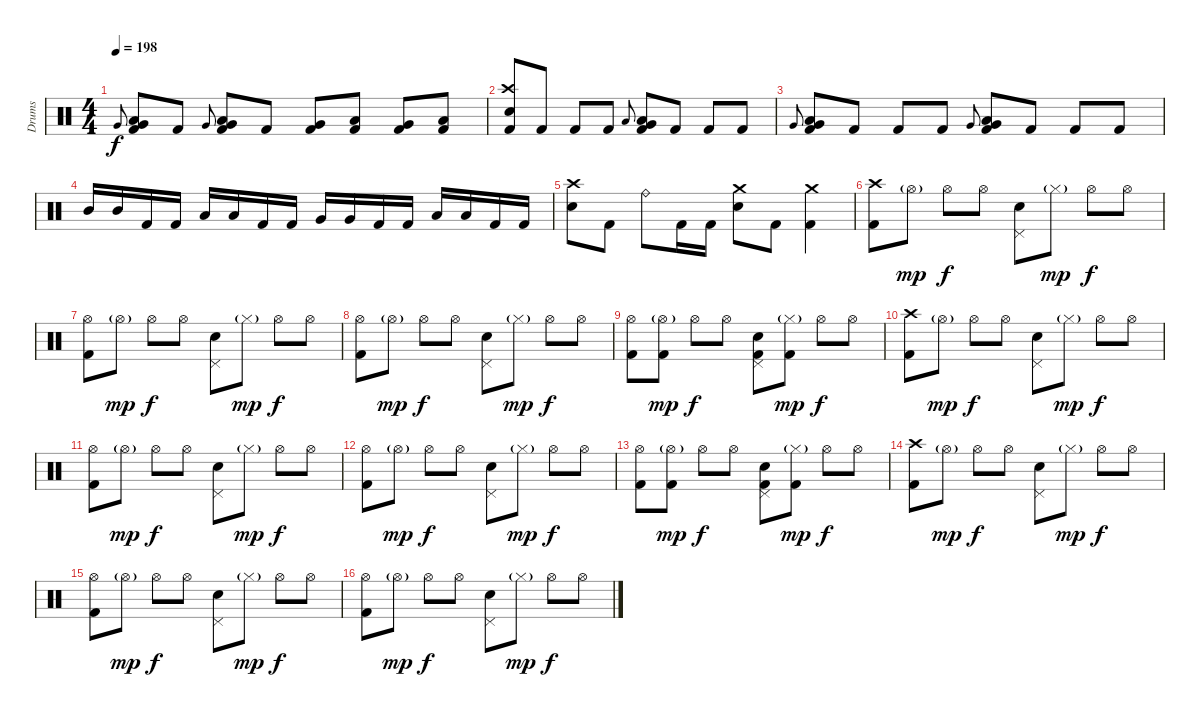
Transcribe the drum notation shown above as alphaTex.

\track ("Drums" "Drums") {instrument percussion}
\staff {score}
\articulation defaults
\ts (4 4)
\tempo 198
\clef neutral
\ks c "Very Low Tom (hit)".8{gr onbeat dy f}
("Very Low Tom (hit)" "Low Floor Tom (hit)" "Kick (hit) 2").8 "Kick (hit) 2".8 "Very Low Tom (hit)".8{gr onbeat} ("Very Low Tom (hit)" "Low Floor Tom (hit)" "Kick (hit) 2").8 "Kick (hit) 2".8 ("Very Low Tom (hit)" "Kick (hit) 2").8 ("Low Tom (hit)" "Kick (hit) 2").8 ("Very Low Tom (hit)" "Kick (hit) 2").8 ("Low Floor Tom (hit)" "Kick (hit) 2").8 |
("Crash high (hit)" "Electric Snare (hit)" "Kick (hit) 2").8 "Kick (hit) 2".8 "Kick (hit) 2".8 "Kick (hit) 2".8 "Low Tom (hit)".8{gr onbeat} ("Low Tom (hit)" "Very Low Tom (hit)" "Kick (hit) 2").8 "Kick (hit) 2".8 "Kick (hit) 2".8 "Kick (hit) 2".8 |
"Very Low Tom (hit)".8{gr onbeat} ("Very Low Tom (hit)" "Low Floor Tom (hit)" "Kick (hit) 2").8 "Kick (hit) 2".8 "Kick (hit) 2".8 "Kick (hit) 2".8 "Very Low Tom (hit)".8{gr onbeat} ("Very Low Tom (hit)" "Low Floor Tom (hit)" "Kick (hit) 2").8 "Kick (hit) 2".8 "Kick (hit) 2".8 "Kick (hit) 2".8 |
"Mid Tom (hit)".16 "Mid Tom (hit)".16 "Kick (hit) 2".16 "Kick (hit) 2".16 "Low Tom (hit)".16 "Low Tom (hit)".16 "Kick (hit) 2".16 "Kick (hit) 2".16 "Very Low Tom (hit)".16 "Very Low Tom (hit)".16 "Kick (hit) 2".16 "Kick (hit) 2".16 "Low Tom (hit)".16 "Low Tom (hit)".16 "Kick (hit) 2".16 "Kick (hit) 2".16 |
("Crash high (hit)" "Electric Snare (hit)").8 "Kick (hit) 2".8 "Ride (bell)".8 "Kick (hit) 2".16 "Kick (hit) 2".16 ("Crash medium (hit)" "Electric Snare (hit)").8 "Kick (hit) 2".8 ("Crash medium (hit)" "Kick (hit) 2").4 |
("Crash high (hit)" "Kick (hit) 2").8 "Hi-Hat (open)"{g}.8{dy mp} "Hi-Hat (open)".8{dy f} "Hi-Hat (open)".8 ("Pedal Hi-Hat (hit)" "Electric Snare (hit)").8 "Hi-Hat (closed)"{g}.8{dy mp} "Hi-Hat (open)".8{dy f} "Hi-Hat (open)".8 |
("Hi-Hat (open)" "Kick (hit) 2").8 "Hi-Hat (open)"{g}.8{dy mp} "Hi-Hat (open)".8{dy f} "Hi-Hat (open)".8 ("Pedal Hi-Hat (hit)" "Electric Snare (hit)").8 "Hi-Hat (closed)"{g}.8{dy mp} "Hi-Hat (open)".8{dy f} "Hi-Hat (open)".8 |
("Hi-Hat (open)" "Kick (hit) 2").8 "Hi-Hat (open)"{g}.8{dy mp} "Hi-Hat (open)".8{dy f} "Hi-Hat (open)".8 ("Pedal Hi-Hat (hit)" "Electric Snare (hit)").8 "Hi-Hat (closed)"{g}.8{dy mp} "Hi-Hat (open)".8{dy f} "Hi-Hat (open)".8 |
("Hi-Hat (open)" "Kick (hit) 2").8 ("Hi-Hat (open)"{g} "Kick (hit) 2").8{dy mp} "Hi-Hat (open)".8{dy f} "Hi-Hat (open)".8 ("Pedal Hi-Hat (hit)" "Electric Snare (hit)" "Kick (hit) 2").8 ("Hi-Hat (closed)"{g} "Kick (hit) 2").8{dy mp} "Hi-Hat (open)".8{dy f} "Hi-Hat (open)".8 |
("Crash high (hit)" "Kick (hit) 2").8 "Hi-Hat (open)"{g}.8{dy mp} "Hi-Hat (open)".8{dy f} "Hi-Hat (open)".8 ("Pedal Hi-Hat (hit)" "Electric Snare (hit)").8 "Hi-Hat (closed)"{g}.8{dy mp} "Hi-Hat (open)".8{dy f} "Hi-Hat (open)".8 |
("Hi-Hat (open)" "Kick (hit) 2").8 "Hi-Hat (open)"{g}.8{dy mp} "Hi-Hat (open)".8{dy f} "Hi-Hat (open)".8 ("Pedal Hi-Hat (hit)" "Electric Snare (hit)").8 "Hi-Hat (closed)"{g}.8{dy mp} "Hi-Hat (open)".8{dy f} "Hi-Hat (open)".8 |
("Hi-Hat (open)" "Kick (hit) 2").8 "Hi-Hat (open)"{g}.8{dy mp} "Hi-Hat (open)".8{dy f} "Hi-Hat (open)".8 ("Pedal Hi-Hat (hit)" "Electric Snare (hit)").8 "Hi-Hat (closed)"{g}.8{dy mp} "Hi-Hat (open)".8{dy f} "Hi-Hat (open)".8 |
("Hi-Hat (open)" "Kick (hit) 2").8 ("Hi-Hat (open)"{g} "Kick (hit) 2").8{dy mp} "Hi-Hat (open)".8{dy f} "Hi-Hat (open)".8 ("Pedal Hi-Hat (hit)" "Electric Snare (hit)" "Kick (hit) 2").8 ("Hi-Hat (closed)"{g} "Kick (hit) 2").8{dy mp} "Hi-Hat (open)".8{dy f} "Hi-Hat (open)".8 |
("Crash high (hit)" "Kick (hit) 2").8 "Hi-Hat (open)"{g}.8{dy mp} "Hi-Hat (open)".8{dy f} "Hi-Hat (open)".8 ("Pedal Hi-Hat (hit)" "Electric Snare (hit)").8 "Hi-Hat (closed)"{g}.8{dy mp} "Hi-Hat (open)".8{dy f} "Hi-Hat (open)".8 |
("Hi-Hat (open)" "Kick (hit) 2").8 "Hi-Hat (open)"{g}.8{dy mp} "Hi-Hat (open)".8{dy f} "Hi-Hat (open)".8 ("Pedal Hi-Hat (hit)" "Electric Snare (hit)").8 "Hi-Hat (closed)"{g}.8{dy mp} "Hi-Hat (open)".8{dy f} "Hi-Hat (open)".8 |
("Hi-Hat (open)" "Kick (hit) 2").8 "Hi-Hat (open)"{g}.8{dy mp} "Hi-Hat (open)".8{dy f} "Hi-Hat (open)".8 ("Pedal Hi-Hat (hit)" "Electric Snare (hit)").8 "Hi-Hat (closed)"{g}.8{dy mp} "Hi-Hat (open)".8{dy f} "Hi-Hat (open)".8
